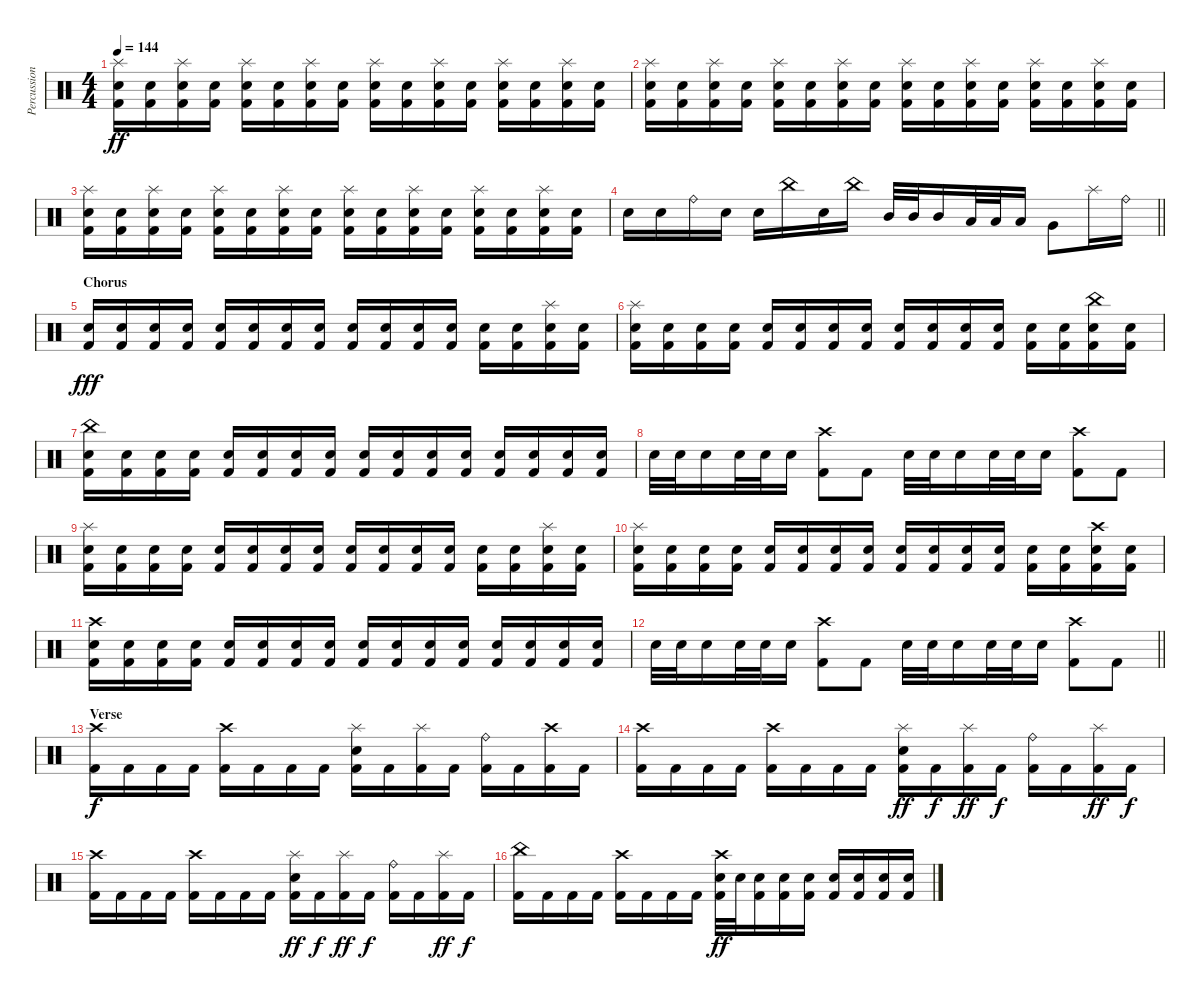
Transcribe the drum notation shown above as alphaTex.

\track ("Percussion" "Percussion") {instrument percussion}
\staff {score}
\articulation defaults
\ts (4 4)
\tempo 144
\clef neutral
\ks c
("Splash (hit)" "Electric Snare (hit)" "Kick (hit) 2").16{dy ff} ("Electric Snare (hit)" "Kick (hit) 2").16 ("Splash (hit)" "Electric Snare (hit)" "Kick (hit) 2").16 ("Electric Snare (hit)" "Kick (hit) 2").16 ("Splash (hit)" "Electric Snare (hit)" "Kick (hit) 2").16 ("Electric Snare (hit)" "Kick (hit) 2").16 ("Splash (hit)" "Electric Snare (hit)" "Kick (hit) 2").16 ("Electric Snare (hit)" "Kick (hit) 2").16 ("Splash (hit)" "Electric Snare (hit)" "Kick (hit) 2").16 ("Electric Snare (hit)" "Kick (hit) 2").16 ("Splash (hit)" "Electric Snare (hit)" "Kick (hit) 2").16 ("Electric Snare (hit)" "Kick (hit) 2").16 ("Splash (hit)" "Electric Snare (hit)" "Kick (hit) 2").16 ("Electric Snare (hit)" "Kick (hit) 2").16 ("Splash (hit)" "Electric Snare (hit)" "Kick (hit) 2").16 ("Electric Snare (hit)" "Kick (hit) 2").16 |
("Splash (hit)" "Electric Snare (hit)" "Kick (hit) 2").16 ("Electric Snare (hit)" "Kick (hit) 2").16 ("Splash (hit)" "Electric Snare (hit)" "Kick (hit) 2").16 ("Electric Snare (hit)" "Kick (hit) 2").16 ("Splash (hit)" "Electric Snare (hit)" "Kick (hit) 2").16 ("Electric Snare (hit)" "Kick (hit) 2").16 ("Splash (hit)" "Electric Snare (hit)" "Kick (hit) 2").16 ("Electric Snare (hit)" "Kick (hit) 2").16 ("Splash (hit)" "Electric Snare (hit)" "Kick (hit) 2").16 ("Electric Snare (hit)" "Kick (hit) 2").16 ("Splash (hit)" "Electric Snare (hit)" "Kick (hit) 2").16 ("Electric Snare (hit)" "Kick (hit) 2").16 ("Splash (hit)" "Electric Snare (hit)" "Kick (hit) 2").16 ("Electric Snare (hit)" "Kick (hit) 2").16 ("Splash (hit)" "Electric Snare (hit)" "Kick (hit) 2").16 ("Electric Snare (hit)" "Kick (hit) 2").16 |
("Splash (hit)" "Electric Snare (hit)" "Kick (hit) 2").16 ("Electric Snare (hit)" "Kick (hit) 2").16 ("Splash (hit)" "Electric Snare (hit)" "Kick (hit) 2").16 ("Electric Snare (hit)" "Kick (hit) 2").16 ("Splash (hit)" "Electric Snare (hit)" "Kick (hit) 2").16 ("Electric Snare (hit)" "Kick (hit) 2").16 ("Splash (hit)" "Electric Snare (hit)" "Kick (hit) 2").16 ("Electric Snare (hit)" "Kick (hit) 2").16 ("Splash (hit)" "Electric Snare (hit)" "Kick (hit) 2").16 ("Electric Snare (hit)" "Kick (hit) 2").16 ("Splash (hit)" "Electric Snare (hit)" "Kick (hit) 2").16 ("Electric Snare (hit)" "Kick (hit) 2").16 ("Splash (hit)" "Electric Snare (hit)" "Kick (hit) 2").16 ("Electric Snare (hit)" "Kick (hit) 2").16 ("Splash (hit)" "Electric Snare (hit)" "Kick (hit) 2").16 ("Electric Snare (hit)" "Kick (hit) 2").16 |
\barLineRight lightlight "Electric Snare (hit)".16 "Electric Snare (hit)".16 "Ride (bell)".16 "Electric Snare (hit)".16 "Electric Snare (hit)".16 "China (hit)".16 "Electric Snare (hit)".16 "China (hit)".16 "Mid Tom (hit)".32 "Mid Tom (hit)".32 "Mid Tom (hit)".16 "Low Tom (hit)".32 "Low Tom (hit)".32 "Low Tom (hit)".16 "Very Low Tom (hit)".8 "Splash (hit)".16 "Ride (bell)".16
|
\section ("" "Chorus")
("Electric Snare (hit)" "Kick (hit) 2").16{dy fff} ("Electric Snare (hit)" "Kick (hit) 2").16 ("Electric Snare (hit)" "Kick (hit) 2").16 ("Electric Snare (hit)" "Kick (hit) 2").16 ("Electric Snare (hit)" "Kick (hit) 2").16 ("Electric Snare (hit)" "Kick (hit) 2").16 ("Electric Snare (hit)" "Kick (hit) 2").16 ("Electric Snare (hit)" "Kick (hit) 2").16 ("Electric Snare (hit)" "Kick (hit) 2").16 ("Electric Snare (hit)" "Kick (hit) 2").16 ("Electric Snare (hit)" "Kick (hit) 2").16 ("Electric Snare (hit)" "Kick (hit) 2").16 ("Electric Snare (hit)" "Kick (hit) 2").16 ("Electric Snare (hit)" "Kick (hit) 2").16 ("Splash (hit)" "Electric Snare (hit)" "Kick (hit) 2").16 ("Electric Snare (hit)" "Kick (hit) 2").16 |
("Splash (hit)" "Electric Snare (hit)" "Kick (hit) 2").16 ("Electric Snare (hit)" "Kick (hit) 2").16 ("Electric Snare (hit)" "Kick (hit) 2").16 ("Electric Snare (hit)" "Kick (hit) 2").16 ("Electric Snare (hit)" "Kick (hit) 2").16 ("Electric Snare (hit)" "Kick (hit) 2").16 ("Electric Snare (hit)" "Kick (hit) 2").16 ("Electric Snare (hit)" "Kick (hit) 2").16 ("Electric Snare (hit)" "Kick (hit) 2").16 ("Electric Snare (hit)" "Kick (hit) 2").16 ("Electric Snare (hit)" "Kick (hit) 2").16 ("Electric Snare (hit)" "Kick (hit) 2").16 ("Electric Snare (hit)" "Kick (hit) 2").16 ("Electric Snare (hit)" "Kick (hit) 2").16 ("China (hit)" "Electric Snare (hit)" "Kick (hit) 2").16 ("Electric Snare (hit)" "Kick (hit) 2").16 |
("China (hit)" "Electric Snare (hit)" "Kick (hit) 2").16 ("Electric Snare (hit)" "Kick (hit) 2").16 ("Electric Snare (hit)" "Kick (hit) 2").16 ("Electric Snare (hit)" "Kick (hit) 2").16 ("Electric Snare (hit)" "Kick (hit) 2").16 ("Electric Snare (hit)" "Kick (hit) 2").16 ("Electric Snare (hit)" "Kick (hit) 2").16 ("Electric Snare (hit)" "Kick (hit) 2").16 ("Electric Snare (hit)" "Kick (hit) 2").16 ("Electric Snare (hit)" "Kick (hit) 2").16 ("Electric Snare (hit)" "Kick (hit) 2").16 ("Electric Snare (hit)" "Kick (hit) 2").16 ("Electric Snare (hit)" "Kick (hit) 2").16 ("Electric Snare (hit)" "Kick (hit) 2").16 ("Electric Snare (hit)" "Kick (hit) 2").16 ("Electric Snare (hit)" "Kick (hit) 2").16 |
"Electric Snare (hit)".32 "Electric Snare (hit)".32 "Electric Snare (hit)".16 "Electric Snare (hit)".32 "Electric Snare (hit)".32 "Electric Snare (hit)".16 ("Crash high (hit)" "Kick (hit) 2").8 "Kick (hit) 2".8 "Electric Snare (hit)".32 "Electric Snare (hit)".32 "Electric Snare (hit)".16 "Electric Snare (hit)".32 "Electric Snare (hit)".32 "Electric Snare (hit)".16 ("Crash high (hit)" "Kick (hit) 2").8 "Kick (hit) 2".8 |
("Splash (hit)" "Electric Snare (hit)" "Kick (hit) 2").16 ("Electric Snare (hit)" "Kick (hit) 2").16 ("Electric Snare (hit)" "Kick (hit) 2").16 ("Electric Snare (hit)" "Kick (hit) 2").16 ("Electric Snare (hit)" "Kick (hit) 2").16 ("Electric Snare (hit)" "Kick (hit) 2").16 ("Electric Snare (hit)" "Kick (hit) 2").16 ("Electric Snare (hit)" "Kick (hit) 2").16 ("Electric Snare (hit)" "Kick (hit) 2").16 ("Electric Snare (hit)" "Kick (hit) 2").16 ("Electric Snare (hit)" "Kick (hit) 2").16 ("Electric Snare (hit)" "Kick (hit) 2").16 ("Electric Snare (hit)" "Kick (hit) 2").16 ("Electric Snare (hit)" "Kick (hit) 2").16 ("Splash (hit)" "Electric Snare (hit)" "Kick (hit) 2").16 ("Electric Snare (hit)" "Kick (hit) 2").16 |
("Splash (hit)" "Electric Snare (hit)" "Kick (hit) 2").16 ("Electric Snare (hit)" "Kick (hit) 2").16 ("Electric Snare (hit)" "Kick (hit) 2").16 ("Electric Snare (hit)" "Kick (hit) 2").16 ("Electric Snare (hit)" "Kick (hit) 2").16 ("Electric Snare (hit)" "Kick (hit) 2").16 ("Electric Snare (hit)" "Kick (hit) 2").16 ("Electric Snare (hit)" "Kick (hit) 2").16 ("Electric Snare (hit)" "Kick (hit) 2").16 ("Electric Snare (hit)" "Kick (hit) 2").16 ("Electric Snare (hit)" "Kick (hit) 2").16 ("Electric Snare (hit)" "Kick (hit) 2").16 ("Electric Snare (hit)" "Kick (hit) 2").16 ("Electric Snare (hit)" "Kick (hit) 2").16 ("Crash high (hit)" "Electric Snare (hit)" "Kick (hit) 2").16 ("Electric Snare (hit)" "Kick (hit) 2").16 |
("Crash high (hit)" "Electric Snare (hit)" "Kick (hit) 2").16 ("Electric Snare (hit)" "Kick (hit) 2").16 ("Electric Snare (hit)" "Kick (hit) 2").16 ("Electric Snare (hit)" "Kick (hit) 2").16 ("Electric Snare (hit)" "Kick (hit) 2").16 ("Electric Snare (hit)" "Kick (hit) 2").16 ("Electric Snare (hit)" "Kick (hit) 2").16 ("Electric Snare (hit)" "Kick (hit) 2").16 ("Electric Snare (hit)" "Kick (hit) 2").16 ("Electric Snare (hit)" "Kick (hit) 2").16 ("Electric Snare (hit)" "Kick (hit) 2").16 ("Electric Snare (hit)" "Kick (hit) 2").16 ("Electric Snare (hit)" "Kick (hit) 2").16 ("Electric Snare (hit)" "Kick (hit) 2").16 ("Electric Snare (hit)" "Kick (hit) 2").16 ("Electric Snare (hit)" "Kick (hit) 2").16 |
\barLineRight lightlight "Electric Snare (hit)".32 "Electric Snare (hit)".32 "Electric Snare (hit)".16 "Electric Snare (hit)".32 "Electric Snare (hit)".32 "Electric Snare (hit)".16
("Crash high (hit)" "Kick (hit) 2").8 "Kick (hit) 2".8 "Electric Snare (hit)".32 "Electric Snare (hit)".32 "Electric Snare (hit)".16 "Electric Snare (hit)".32 "Electric Snare (hit)".32 "Electric Snare (hit)".16 ("Crash high (hit)" "Kick (hit) 2").8 "Kick (hit) 2".8 |
\section ("" "Verse")
("Crash high (hit)" "Kick (hit) 2").16{dy f} "Kick (hit) 2".16 "Kick (hit) 2".16 "Kick (hit) 2".16 ("Crash high (hit)" "Kick (hit) 2").16 "Kick (hit) 2".16 "Kick (hit) 2".16 "Kick (hit) 2".16 ("Splash (hit)" "Electric Snare (hit)" "Kick (hit) 2").16 "Kick (hit) 2".16 ("Splash (hit)" "Kick (hit) 2").16 "Kick (hit) 2".16 ("Ride (bell)" "Kick (hit) 2").16 "Kick (hit) 2".16 ("Crash high (hit)" "Kick (hit) 2").16 "Kick (hit) 2".16 |
("Crash high (hit)" "Kick (hit) 2").16 "Kick (hit) 2".16 "Kick (hit) 2".16 "Kick (hit) 2".16 ("Crash high (hit)" "Kick (hit) 2").16 "Kick (hit) 2".16 "Kick (hit) 2".16 "Kick (hit) 2".16 ("Splash (hit)" "Electric Snare (hit)" "Kick (hit) 2").16{dy ff} "Kick (hit) 2".16{dy f} ("Splash (hit)" "Kick (hit) 2").16{dy ff} "Kick (hit) 2".16{dy f} ("Ride (bell)" "Kick (hit) 2").16 "Kick (hit) 2".16 ("Splash (hit)" "Kick (hit) 2").16{dy ff} "Kick (hit) 2".16{dy f} |
("Crash high (hit)" "Kick (hit) 2").16 "Kick (hit) 2".16 "Kick (hit) 2".16 "Kick (hit) 2".16 ("Crash high (hit)" "Kick (hit) 2").16 "Kick (hit) 2".16 "Kick (hit) 2".16 "Kick (hit) 2".16 ("Splash (hit)" "Electric Snare (hit)" "Kick (hit) 2").16{dy ff} "Kick (hit) 2".16{dy f} ("Splash (hit)" "Kick (hit) 2").16{dy ff} "Kick (hit) 2".16{dy f} ("Ride (bell)" "Kick (hit) 2").16 "Kick (hit) 2".16 ("Splash (hit)" "Kick (hit) 2").16{dy ff} "Kick (hit) 2".16{dy f} |
("China (hit)" "Kick (hit) 2").16 "Kick (hit) 2".16 "Kick (hit) 2".16 "Kick (hit) 2".16 ("Crash high (hit)" "Kick (hit) 2").16 "Kick (hit) 2".16 "Kick (hit) 2".16 "Kick (hit) 2".16 ("Crash high (hit)" "Electric Snare (hit)" "Kick (hit) 2").32{dy ff} "Electric Snare (hit)".32 ("Electric Snare (hit)" "Kick (hit) 2").16 ("Electric Snare (hit)" "Kick (hit) 2").16 ("Electric Snare (hit)" "Kick (hit) 2").16 ("Electric Snare (hit)" "Kick (hit) 2").16 ("Electric Snare (hit)" "Kick (hit) 2").16 ("Electric Snare (hit)" "Kick (hit) 2").16 ("Electric Snare (hit)" "Kick (hit) 2").16
